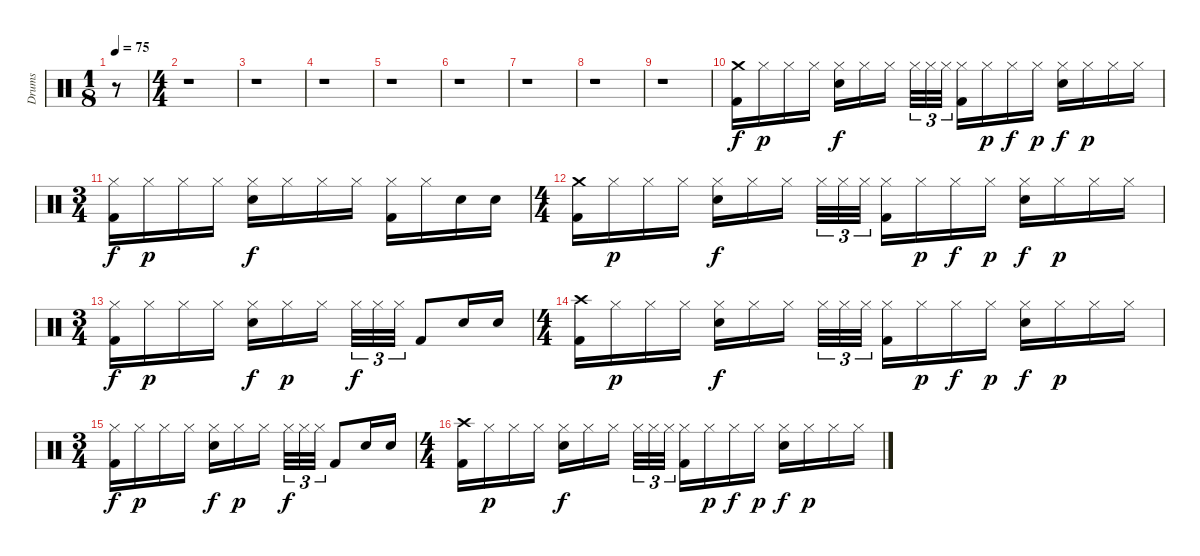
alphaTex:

\track ("Drums" "Drums") {instrument percussion}
\staff {score}
\articulation defaults
\ts (1 8)
\tempo 75
\clef neutral
\ks c
r.8{dy f} |
\ts (4 4)
r.1 |
r.1 |
r.1 |
r.1 |
r.1 |
r.1 |
r.1 |
r.1 |
("Crash medium (hit)" "Kick (hit) 2").16 "Hi-Hat (closed)".16{dy p} "Hi-Hat (closed)".16 "Hi-Hat (closed)".16 ("Hi-Hat (closed)" "Electric Snare (hit)").16{dy f} "Hi-Hat (closed)".16 "Hi-Hat (closed)".16 "Hi-Hat (closed)".32{tu (3 2)} "Hi-Hat (closed)".32{tu (3 2)} "Hi-Hat (closed)".32{tu (3 2)} ("Hi-Hat (closed)" "Kick (hit) 2").16 "Hi-Hat (closed)".16{dy p} "Hi-Hat (closed)".16{dy f} "Hi-Hat (closed)".16{dy p} ("Hi-Hat (closed)" "Electric Snare (hit)").16{dy f} "Hi-Hat (closed)".16{dy p} "Hi-Hat (closed)".16 "Hi-Hat (closed)".16 |
\ts (3 4)
("Hi-Hat (closed)" "Kick (hit) 2").16{dy f} "Hi-Hat (closed)".16{dy p} "Hi-Hat (closed)".16 "Hi-Hat (closed)".16 ("Hi-Hat (closed)" "Electric Snare (hit)").16{dy f} "Hi-Hat (closed)".16 "Hi-Hat (closed)".16 "Hi-Hat (closed)".16 ("Hi-Hat (closed)" "Kick (hit) 2").16 "Hi-Hat (closed)".16 "Electric Snare (hit)".16 "Electric Snare (hit)".16 |
\ts (4 4)
("Crash medium (hit)" "Kick (hit) 2").16 "Hi-Hat (closed)".16{dy p} "Hi-Hat (closed)".16 "Hi-Hat (closed)".16 ("Hi-Hat (closed)" "Electric Snare (hit)").16{dy f} "Hi-Hat (closed)".16 "Hi-Hat (closed)".16 "Hi-Hat (closed)".32{tu (3 2)} "Hi-Hat (closed)".32{tu (3 2)} "Hi-Hat (closed)".32{tu (3 2)} ("Hi-Hat (closed)" "Kick (hit) 2").16 "Hi-Hat (closed)".16{dy p} "Hi-Hat (closed)".16{dy f} "Hi-Hat (closed)".16{dy p} ("Hi-Hat (closed)" "Electric Snare (hit)").16{dy f} "Hi-Hat (closed)".16{dy p} "Hi-Hat (closed)".16 "Hi-Hat (closed)".16 |
\ts (3 4)
("Hi-Hat (closed)" "Kick (hit) 2").16{dy f} "Hi-Hat (closed)".16{dy p} "Hi-Hat (closed)".16 "Hi-Hat (closed)".16 ("Hi-Hat (closed)" "Electric Snare (hit)").16{dy f} "Hi-Hat (closed)".16{dy p} "Hi-Hat (closed)".16 "Hi-Hat (closed)".32{tu (3 2) dy f} "Hi-Hat (closed)".32{tu (3 2)} "Hi-Hat (closed)".32{tu (3 2)} "Kick (hit) 2".8 "Electric Snare (hit)".16 "Electric Snare (hit)".16 |
\ts (4 4)
("Crash high (hit)" "Kick (hit) 2").16 "Hi-Hat (closed)".16{dy p} "Hi-Hat (closed)".16 "Hi-Hat (closed)".16 ("Hi-Hat (closed)" "Electric Snare (hit)").16{dy f} "Hi-Hat (closed)".16 "Hi-Hat (closed)".16 "Hi-Hat (closed)".32{tu (3 2)} "Hi-Hat (closed)".32{tu (3 2)} "Hi-Hat (closed)".32{tu (3 2)} ("Hi-Hat (closed)" "Kick (hit) 2").16 "Hi-Hat (closed)".16{dy p} "Hi-Hat (closed)".16{dy f} "Hi-Hat (closed)".16{dy p} ("Hi-Hat (closed)" "Electric Snare (hit)").16{dy f} "Hi-Hat (closed)".16{dy p} "Hi-Hat (closed)".16 "Hi-Hat (closed)".16 |
\ts (3 4)
("Hi-Hat (closed)" "Kick (hit) 2").16{dy f} "Hi-Hat (closed)".16{dy p} "Hi-Hat (closed)".16 "Hi-Hat (closed)".16 ("Hi-Hat (closed)" "Electric Snare (hit)").16{dy f} "Hi-Hat (closed)".16{dy p} "Hi-Hat (closed)".16 "Hi-Hat (closed)".32{tu (3 2) dy f} "Hi-Hat (closed)".32{tu (3 2)} "Hi-Hat (closed)".32{tu (3 2)} "Kick (hit) 2".8 "Electric Snare (hit)".16 "Electric Snare (hit)".16 |
\ts (4 4)
("Crash high (hit)" "Kick (hit) 2").16 "Hi-Hat (closed)".16{dy p} "Hi-Hat (closed)".16 "Hi-Hat (closed)".16 ("Hi-Hat (closed)" "Electric Snare (hit)").16{dy f} "Hi-Hat (closed)".16 "Hi-Hat (closed)".16 "Hi-Hat (closed)".32{tu (3 2)} "Hi-Hat (closed)".32{tu (3 2)} "Hi-Hat (closed)".32{tu (3 2)} ("Hi-Hat (closed)" "Kick (hit) 2").16 "Hi-Hat (closed)".16{dy p} "Hi-Hat (closed)".16{dy f} "Hi-Hat (closed)".16{dy p} ("Hi-Hat (closed)" "Electric Snare (hit)").16{dy f} "Hi-Hat (closed)".16{dy p} "Hi-Hat (closed)".16 "Hi-Hat (closed)".16
